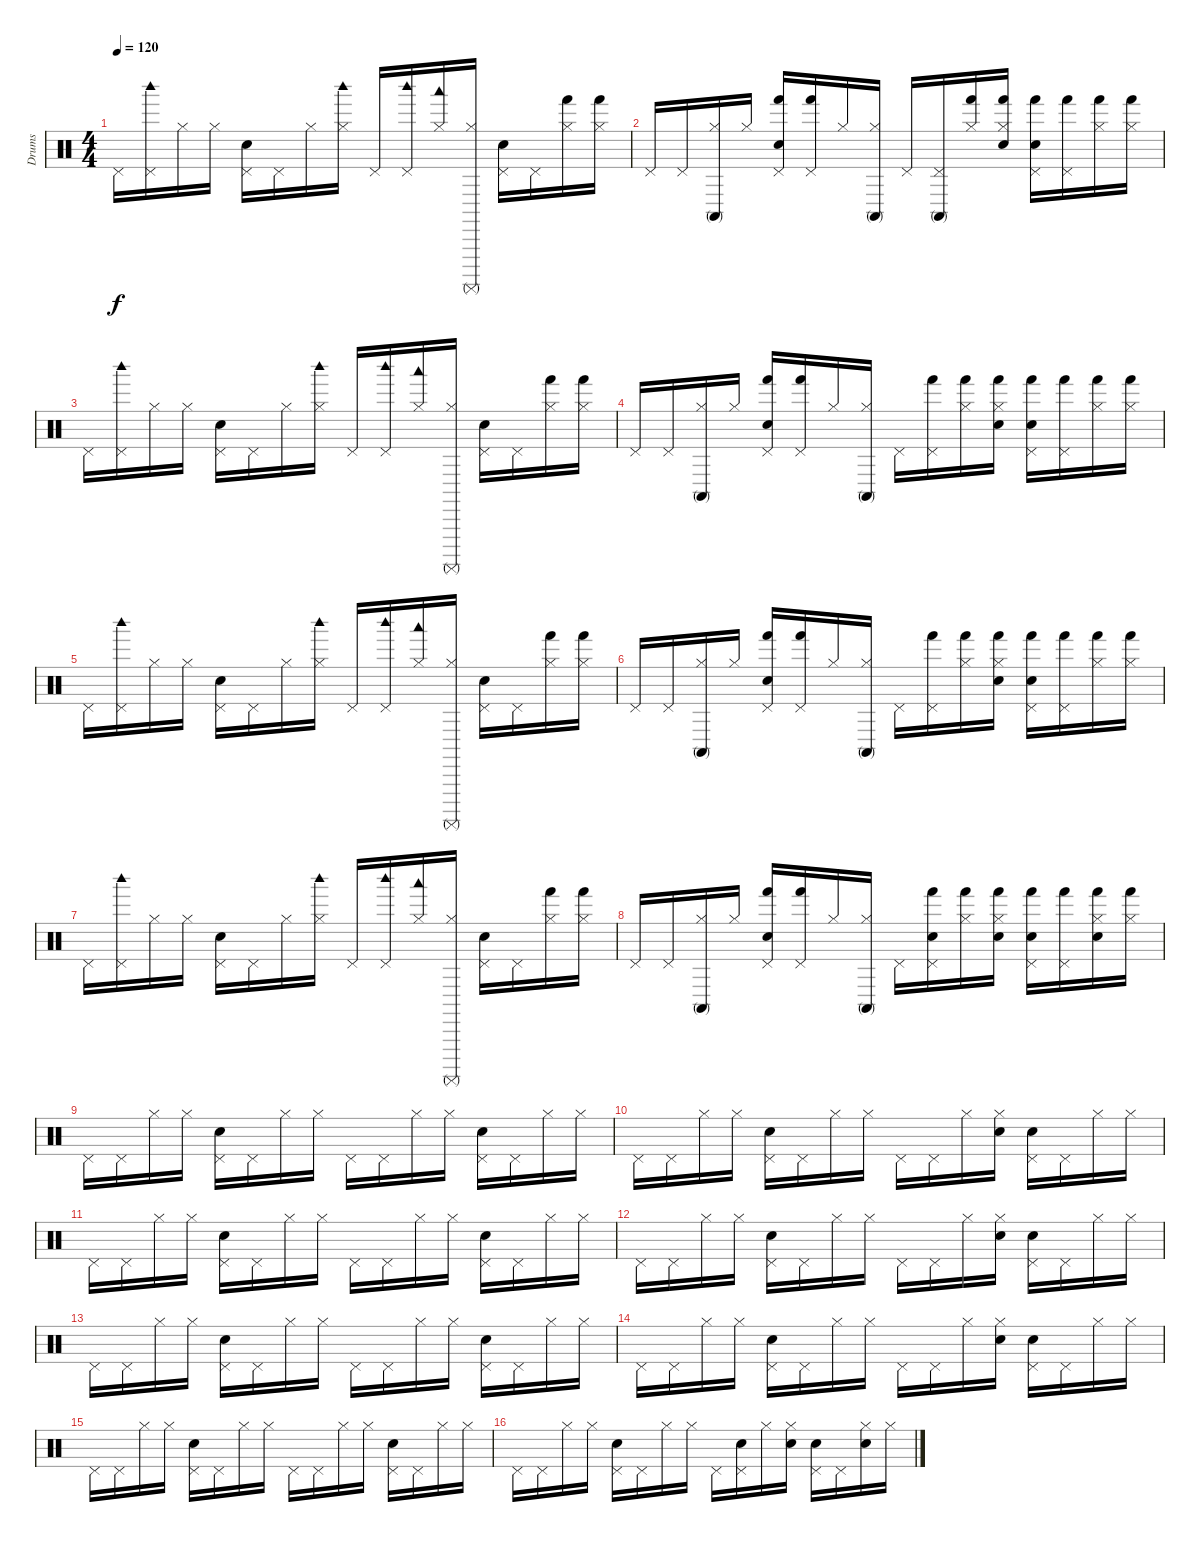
\track ("Drums" "Drums") {instrument percussion}
\staff {score}
\articulation defaults
\ts (4 4)
\tempo 120
\clef neutral
\ks c "Pedal Hi-Hat (hit)".16{dy f}
("Pedal Hi-Hat (hit)" "Woodblock high (hit)").16 "Hi-Hat (closed)".16 "Hi-Hat (closed)".16 ("Pedal Hi-Hat (hit)" "Hand Clap (hit)").16 "Pedal Hi-Hat (hit)".16 "Hi-Hat (closed)".16 ("Hi-Hat (closed)" "Woodblock high (hit)").16 "Pedal Hi-Hat (hit)".16 ("Pedal Hi-Hat (hit)" "Woodblock high (hit)").16 ("Hi-Hat (closed)" "Woodblock low (hit)").16 ("Hi-Hat (closed)" "Surdo (mute)").16 ("Pedal Hi-Hat (hit)" "Hand Clap (hit)").16 "Pedal Hi-Hat (hit)".16 ("Hi-Hat (closed)" "Hand (hit)").16 ("Hi-Hat (closed)" "Hand (hit)").16 |
"Pedal Hi-Hat (hit)".16 "Pedal Hi-Hat (hit)".16 ("Hi-Hat (closed)" "Conga high (mute)").16 "Hi-Hat (closed)".16 ("Pedal Hi-Hat (hit)" "Hand (hit)" "Hand Clap (hit)").16 ("Pedal Hi-Hat (hit)" "Hand (hit)").16 "Hi-Hat (closed)".16 ("Hi-Hat (closed)" "Conga high (mute)").16 "Pedal Hi-Hat (hit)".16 ("Pedal Hi-Hat (hit)" "Conga high (mute)").16 ("Hi-Hat (closed)" "Hand (hit)").16 ("Hi-Hat (closed)" "Hand (hit)" "Hand Clap (hit)").16 ("Pedal Hi-Hat (hit)" "Hand (hit)" "Hand Clap (hit)").16 ("Pedal Hi-Hat (hit)" "Hand (hit)").16 ("Hi-Hat (closed)" "Hand (hit)").16 ("Hi-Hat (closed)" "Hand (hit)").16 |
"Pedal Hi-Hat (hit)".16 ("Pedal Hi-Hat (hit)" "Woodblock high (hit)").16 "Hi-Hat (closed)".16 "Hi-Hat (closed)".16 ("Pedal Hi-Hat (hit)" "Hand Clap (hit)").16 "Pedal Hi-Hat (hit)".16 "Hi-Hat (closed)".16 ("Hi-Hat (closed)" "Woodblock high (hit)").16 "Pedal Hi-Hat (hit)".16 ("Pedal Hi-Hat (hit)" "Woodblock high (hit)").16 ("Hi-Hat (closed)" "Woodblock low (hit)").16 ("Hi-Hat (closed)" "Surdo (mute)").16 ("Pedal Hi-Hat (hit)" "Hand Clap (hit)").16 "Pedal Hi-Hat (hit)".16 ("Hi-Hat (closed)" "Hand (hit)").16 ("Hi-Hat (closed)" "Hand (hit)").16 |
"Pedal Hi-Hat (hit)".16 "Pedal Hi-Hat (hit)".16 ("Hi-Hat (closed)" "Conga high (mute)").16 "Hi-Hat (closed)".16 ("Pedal Hi-Hat (hit)" "Hand (hit)" "Hand Clap (hit)").16 ("Pedal Hi-Hat (hit)" "Hand (hit)").16 "Hi-Hat (closed)".16 ("Hi-Hat (closed)" "Conga high (mute)").16 "Pedal Hi-Hat (hit)".16 ("Pedal Hi-Hat (hit)" "Hand (hit)").16 ("Hi-Hat (closed)" "Hand (hit)").16 ("Hi-Hat (closed)" "Hand (hit)" "Hand Clap (hit)").16 ("Pedal Hi-Hat (hit)" "Hand (hit)" "Hand Clap (hit)").16 ("Pedal Hi-Hat (hit)" "Hand (hit)").16 ("Hi-Hat (closed)" "Hand (hit)").16 ("Hi-Hat (closed)" "Hand (hit)").16 |
"Pedal Hi-Hat (hit)".16 ("Pedal Hi-Hat (hit)" "Woodblock high (hit)").16 "Hi-Hat (closed)".16 "Hi-Hat (closed)".16 ("Pedal Hi-Hat (hit)" "Hand Clap (hit)").16 "Pedal Hi-Hat (hit)".16 "Hi-Hat (closed)".16 ("Hi-Hat (closed)" "Woodblock high (hit)").16 "Pedal Hi-Hat (hit)".16 ("Pedal Hi-Hat (hit)" "Woodblock high (hit)").16 ("Hi-Hat (closed)" "Woodblock low (hit)").16 ("Hi-Hat (closed)" "Surdo (mute)").16 ("Pedal Hi-Hat (hit)" "Hand Clap (hit)").16 "Pedal Hi-Hat (hit)".16 ("Hi-Hat (closed)" "Hand (hit)").16 ("Hi-Hat (closed)" "Hand (hit)").16 |
"Pedal Hi-Hat (hit)".16 "Pedal Hi-Hat (hit)".16 ("Hi-Hat (closed)" "Conga high (mute)").16 "Hi-Hat (closed)".16 ("Pedal Hi-Hat (hit)" "Hand (hit)" "Hand Clap (hit)").16 ("Pedal Hi-Hat (hit)" "Hand (hit)").16 "Hi-Hat (closed)".16 ("Hi-Hat (closed)" "Conga high (mute)").16 "Pedal Hi-Hat (hit)".16 ("Pedal Hi-Hat (hit)" "Hand (hit)").16 ("Hi-Hat (closed)" "Hand (hit)").16 ("Hi-Hat (closed)" "Hand (hit)" "Hand Clap (hit)").16 ("Pedal Hi-Hat (hit)" "Hand (hit)" "Hand Clap (hit)").16 ("Pedal Hi-Hat (hit)" "Hand (hit)").16 ("Hi-Hat (closed)" "Hand (hit)").16 ("Hi-Hat (closed)" "Hand (hit)").16 |
"Pedal Hi-Hat (hit)".16 ("Pedal Hi-Hat (hit)" "Woodblock high (hit)").16 "Hi-Hat (closed)".16 "Hi-Hat (closed)".16 ("Pedal Hi-Hat (hit)" "Hand Clap (hit)").16 "Pedal Hi-Hat (hit)".16 "Hi-Hat (closed)".16 ("Hi-Hat (closed)" "Woodblock high (hit)").16 "Pedal Hi-Hat (hit)".16 ("Pedal Hi-Hat (hit)" "Woodblock high (hit)").16 ("Hi-Hat (closed)" "Woodblock low (hit)").16 ("Hi-Hat (closed)" "Surdo (mute)").16 ("Pedal Hi-Hat (hit)" "Hand Clap (hit)").16 "Pedal Hi-Hat (hit)".16 ("Hi-Hat (closed)" "Hand (hit)").16 ("Hi-Hat (closed)" "Hand (hit)").16 |
"Pedal Hi-Hat (hit)".16 "Pedal Hi-Hat (hit)".16 ("Hi-Hat (closed)" "Conga high (mute)").16 "Hi-Hat (closed)".16 ("Pedal Hi-Hat (hit)" "Hand (hit)" "Hand Clap (hit)").16 ("Pedal Hi-Hat (hit)" "Hand (hit)").16 "Hi-Hat (closed)".16 ("Hi-Hat (closed)" "Conga high (mute)").16 "Pedal Hi-Hat (hit)".16 ("Pedal Hi-Hat (hit)" "Hand (hit)" "Hand Clap (hit)").16 ("Hi-Hat (closed)" "Hand (hit)").16 ("Hi-Hat (closed)" "Hand (hit)" "Hand Clap (hit)").16 ("Pedal Hi-Hat (hit)" "Hand (hit)" "Hand Clap (hit)").16 ("Pedal Hi-Hat (hit)" "Hand (hit)").16 ("Hi-Hat (closed)" "Hand (hit)" "Hand Clap (hit)").16 ("Hi-Hat (closed)" "Hand (hit)").16 |
"Pedal Hi-Hat (hit)".16 "Pedal Hi-Hat (hit)".16 "Hi-Hat (closed)".16 "Hi-Hat (closed)".16 ("Pedal Hi-Hat (hit)" "Hand Clap (hit)").16 "Pedal Hi-Hat (hit)".16 "Hi-Hat (closed)".16 "Hi-Hat (closed)".16 "Pedal Hi-Hat (hit)".16 "Pedal Hi-Hat (hit)".16 "Hi-Hat (closed)".16 "Hi-Hat (closed)".16 ("Pedal Hi-Hat (hit)" "Hand Clap (hit)").16 "Pedal Hi-Hat (hit)".16 "Hi-Hat (closed)".16 "Hi-Hat (closed)".16 |
"Pedal Hi-Hat (hit)".16 "Pedal Hi-Hat (hit)".16 "Hi-Hat (closed)".16 "Hi-Hat (closed)".16 ("Pedal Hi-Hat (hit)" "Hand Clap (hit)").16 "Pedal Hi-Hat (hit)".16 "Hi-Hat (closed)".16 "Hi-Hat (closed)".16 "Pedal Hi-Hat (hit)".16 "Pedal Hi-Hat (hit)".16 "Hi-Hat (closed)".16 ("Hi-Hat (closed)" "Hand Clap (hit)").16 ("Pedal Hi-Hat (hit)" "Hand Clap (hit)").16 "Pedal Hi-Hat (hit)".16 "Hi-Hat (closed)".16 "Hi-Hat (closed)".16 |
"Pedal Hi-Hat (hit)".16 "Pedal Hi-Hat (hit)".16 "Hi-Hat (closed)".16 "Hi-Hat (closed)".16 ("Pedal Hi-Hat (hit)" "Hand Clap (hit)").16 "Pedal Hi-Hat (hit)".16 "Hi-Hat (closed)".16 "Hi-Hat (closed)".16 "Pedal Hi-Hat (hit)".16 "Pedal Hi-Hat (hit)".16 "Hi-Hat (closed)".16 "Hi-Hat (closed)".16 ("Pedal Hi-Hat (hit)" "Hand Clap (hit)").16 "Pedal Hi-Hat (hit)".16 "Hi-Hat (closed)".16 "Hi-Hat (closed)".16 |
"Pedal Hi-Hat (hit)".16 "Pedal Hi-Hat (hit)".16 "Hi-Hat (closed)".16 "Hi-Hat (closed)".16 ("Pedal Hi-Hat (hit)" "Hand Clap (hit)").16 "Pedal Hi-Hat (hit)".16 "Hi-Hat (closed)".16 "Hi-Hat (closed)".16 "Pedal Hi-Hat (hit)".16 "Pedal Hi-Hat (hit)".16 "Hi-Hat (closed)".16 ("Hi-Hat (closed)" "Hand Clap (hit)").16 ("Pedal Hi-Hat (hit)" "Hand Clap (hit)").16 "Pedal Hi-Hat (hit)".16 "Hi-Hat (closed)".16 "Hi-Hat (closed)".16 |
"Pedal Hi-Hat (hit)".16 "Pedal Hi-Hat (hit)".16 "Hi-Hat (closed)".16 "Hi-Hat (closed)".16 ("Pedal Hi-Hat (hit)" "Hand Clap (hit)").16 "Pedal Hi-Hat (hit)".16 "Hi-Hat (closed)".16 "Hi-Hat (closed)".16 "Pedal Hi-Hat (hit)".16 "Pedal Hi-Hat (hit)".16 "Hi-Hat (closed)".16 "Hi-Hat (closed)".16 ("Pedal Hi-Hat (hit)" "Hand Clap (hit)").16 "Pedal Hi-Hat (hit)".16 "Hi-Hat (closed)".16 "Hi-Hat (closed)".16 |
"Pedal Hi-Hat (hit)".16 "Pedal Hi-Hat (hit)".16 "Hi-Hat (closed)".16 "Hi-Hat (closed)".16 ("Pedal Hi-Hat (hit)" "Hand Clap (hit)").16 "Pedal Hi-Hat (hit)".16 "Hi-Hat (closed)".16 "Hi-Hat (closed)".16 "Pedal Hi-Hat (hit)".16 "Pedal Hi-Hat (hit)".16 "Hi-Hat (closed)".16 ("Hi-Hat (closed)" "Hand Clap (hit)").16 ("Pedal Hi-Hat (hit)" "Hand Clap (hit)").16 "Pedal Hi-Hat (hit)".16 "Hi-Hat (closed)".16 "Hi-Hat (closed)".16 |
"Pedal Hi-Hat (hit)".16 "Pedal Hi-Hat (hit)".16 "Hi-Hat (closed)".16 "Hi-Hat (closed)".16 ("Pedal Hi-Hat (hit)" "Hand Clap (hit)").16 "Pedal Hi-Hat (hit)".16 "Hi-Hat (closed)".16 "Hi-Hat (closed)".16 "Pedal Hi-Hat (hit)".16 "Pedal Hi-Hat (hit)".16 "Hi-Hat (closed)".16 "Hi-Hat (closed)".16 ("Pedal Hi-Hat (hit)" "Hand Clap (hit)").16 "Pedal Hi-Hat (hit)".16 "Hi-Hat (closed)".16 "Hi-Hat (closed)".16 |
"Pedal Hi-Hat (hit)".16 "Pedal Hi-Hat (hit)".16 "Hi-Hat (closed)".16 "Hi-Hat (closed)".16 ("Pedal Hi-Hat (hit)" "Hand Clap (hit)").16 "Pedal Hi-Hat (hit)".16 "Hi-Hat (closed)".16 "Hi-Hat (closed)".16 "Pedal Hi-Hat (hit)".16 ("Pedal Hi-Hat (hit)" "Hand Clap (hit)").16 "Hi-Hat (closed)".16 ("Hi-Hat (closed)" "Hand Clap (hit)").16 ("Pedal Hi-Hat (hit)" "Hand Clap (hit)").16 "Pedal Hi-Hat (hit)".16 ("Hi-Hat (closed)" "Hand Clap (hit)").16 "Hi-Hat (closed)".16
